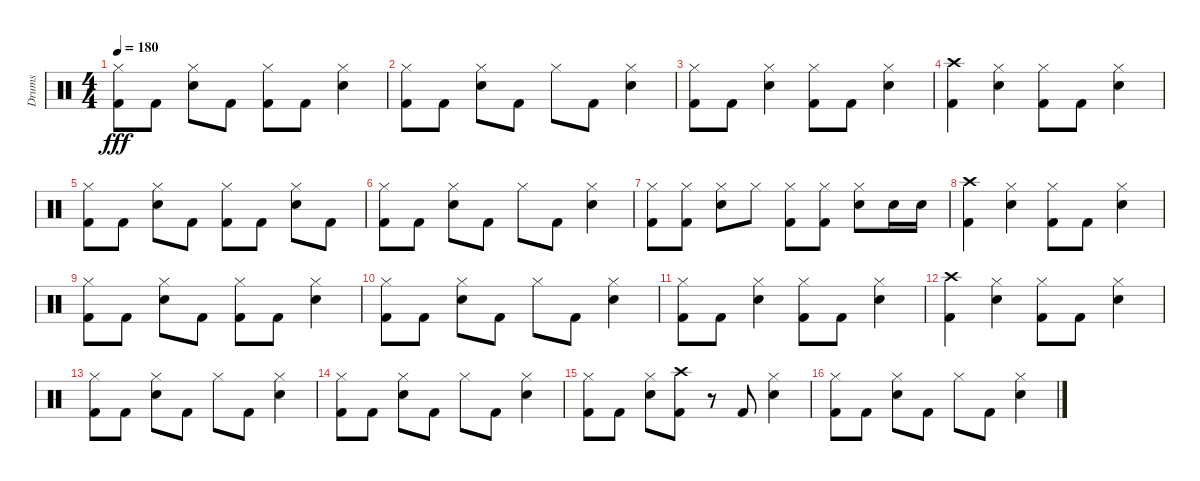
\track ("Drums" "Drums") {instrument percussion}
\staff {score}
\articulation defaults
\ts (4 4)
\tempo 180
\clef neutral
\ks c
("Kick (hit) 2" "Hi-Hat (closed)").8{dy fff} "Kick (hit) 2".8 ("Snare (hit) 2" "Hi-Hat (closed)").8 "Kick (hit) 2".8 ("Kick (hit) 2" "Hi-Hat (closed)").8 "Kick (hit) 2".8 ("Snare (hit) 2" "Hi-Hat (closed)").4 |
("Kick (hit) 2" "Hi-Hat (closed)").8 "Kick (hit) 2".8 ("Snare (hit) 2" "Hi-Hat (closed)").8 "Kick (hit) 2".8 "Hi-Hat (closed)".8 "Kick (hit) 2".8 ("Snare (hit) 2" "Hi-Hat (closed)").4 |
("Kick (hit) 2" "Hi-Hat (closed)").8 "Kick (hit) 2".8 ("Snare (hit) 2" "Hi-Hat (closed)").4 ("Kick (hit) 2" "Hi-Hat (closed)").8 "Kick (hit) 2".8 ("Snare (hit) 2" "Hi-Hat (closed)").4 |
("Crash high (hit)" "Kick (hit) 2").4 ("Snare (hit) 2" "Hi-Hat (closed)").4 ("Kick (hit) 2" "Hi-Hat (closed)").8 "Kick (hit) 2".8 ("Snare (hit) 2" "Hi-Hat (closed)").4 |
("Kick (hit) 2" "Hi-Hat (closed)").8 "Kick (hit) 2".8 ("Snare (hit) 2" "Hi-Hat (closed)").8 "Kick (hit) 2".8 ("Kick (hit) 2" "Hi-Hat (closed)").8 "Kick (hit) 2".8 ("Snare (hit) 2" "Hi-Hat (closed)").8 "Kick (hit) 2".8 |
("Kick (hit) 2" "Hi-Hat (closed)").8 "Kick (hit) 2".8 ("Snare (hit) 2" "Hi-Hat (closed)").8 "Kick (hit) 2".8 "Hi-Hat (closed)".8 "Kick (hit) 2".8 ("Snare (hit) 2" "Hi-Hat (closed)").4 |
("Hi-Hat (closed)" "Kick (hit) 2").8 ("Hi-Hat (closed)" "Kick (hit) 2").8 ("Snare (hit) 2" "Hi-Hat (closed)").8 "Hi-Hat (closed)".8 ("Hi-Hat (closed)" "Kick (hit) 2").8 ("Hi-Hat (closed)" "Kick (hit) 2").8 ("Snare (hit) 2" "Hi-Hat (closed)").8 "Snare (hit) 2".16 "Snare (hit) 2".16 |
("Crash high (hit)" "Kick (hit) 2").4 ("Snare (hit) 2" "Hi-Hat (closed)").4 ("Kick (hit) 2" "Hi-Hat (closed)").8 "Kick (hit) 2".8 ("Snare (hit) 2" "Hi-Hat (closed)").4 |
("Kick (hit) 2" "Hi-Hat (closed)").8 "Kick (hit) 2".8 ("Snare (hit) 2" "Hi-Hat (closed)").8 "Kick (hit) 2".8 ("Kick (hit) 2" "Hi-Hat (closed)").8 "Kick (hit) 2".8 ("Snare (hit) 2" "Hi-Hat (closed)").4 |
("Kick (hit) 2" "Hi-Hat (closed)").8 "Kick (hit) 2".8 ("Snare (hit) 2" "Hi-Hat (closed)").8 "Kick (hit) 2".8 "Hi-Hat (closed)".8 "Kick (hit) 2".8 ("Snare (hit) 2" "Hi-Hat (closed)").4 |
("Hi-Hat (closed)" "Kick (hit) 2").8 "Kick (hit) 2".8 ("Snare (hit) 2" "Hi-Hat (closed)").4 ("Kick (hit) 2" "Hi-Hat (closed)").8 "Kick (hit) 2".8 ("Snare (hit) 2" "Hi-Hat (closed)").4 |
("Crash high (hit)" "Kick (hit) 2").4 ("Snare (hit) 2" "Hi-Hat (closed)").4 ("Kick (hit) 2" "Hi-Hat (closed)").8 "Kick (hit) 2".8 ("Snare (hit) 2" "Hi-Hat (closed)").4 |
("Kick (hit) 2" "Hi-Hat (closed)").8 "Kick (hit) 2".8 ("Snare (hit) 2" "Hi-Hat (closed)").8 "Kick (hit) 2".8 "Hi-Hat (closed)".8 "Kick (hit) 2".8 ("Snare (hit) 2" "Hi-Hat (closed)").4 |
("Kick (hit) 2" "Hi-Hat (closed)").8 "Kick (hit) 2".8 ("Snare (hit) 2" "Hi-Hat (closed)").8 "Kick (hit) 2".8 "Hi-Hat (closed)".8 "Kick (hit) 2".8 ("Snare (hit) 2" "Hi-Hat (closed)").4 |
("Kick (hit) 2" "Hi-Hat (closed)").8 "Kick (hit) 2".8 ("Snare (hit) 2" "Hi-Hat (closed)").8 ("Crash high (hit)" "Kick (hit) 2").8 r.8 "Kick (hit) 2".8 ("Snare (hit) 2" "Hi-Hat (closed)").4 |
("Kick (hit) 2" "Hi-Hat (closed)").8 "Kick (hit) 2".8 ("Snare (hit) 2" "Hi-Hat (closed)").8 "Kick (hit) 2".8 "Hi-Hat (closed)".8 "Kick (hit) 2".8 ("Snare (hit) 2" "Hi-Hat (closed)").4
